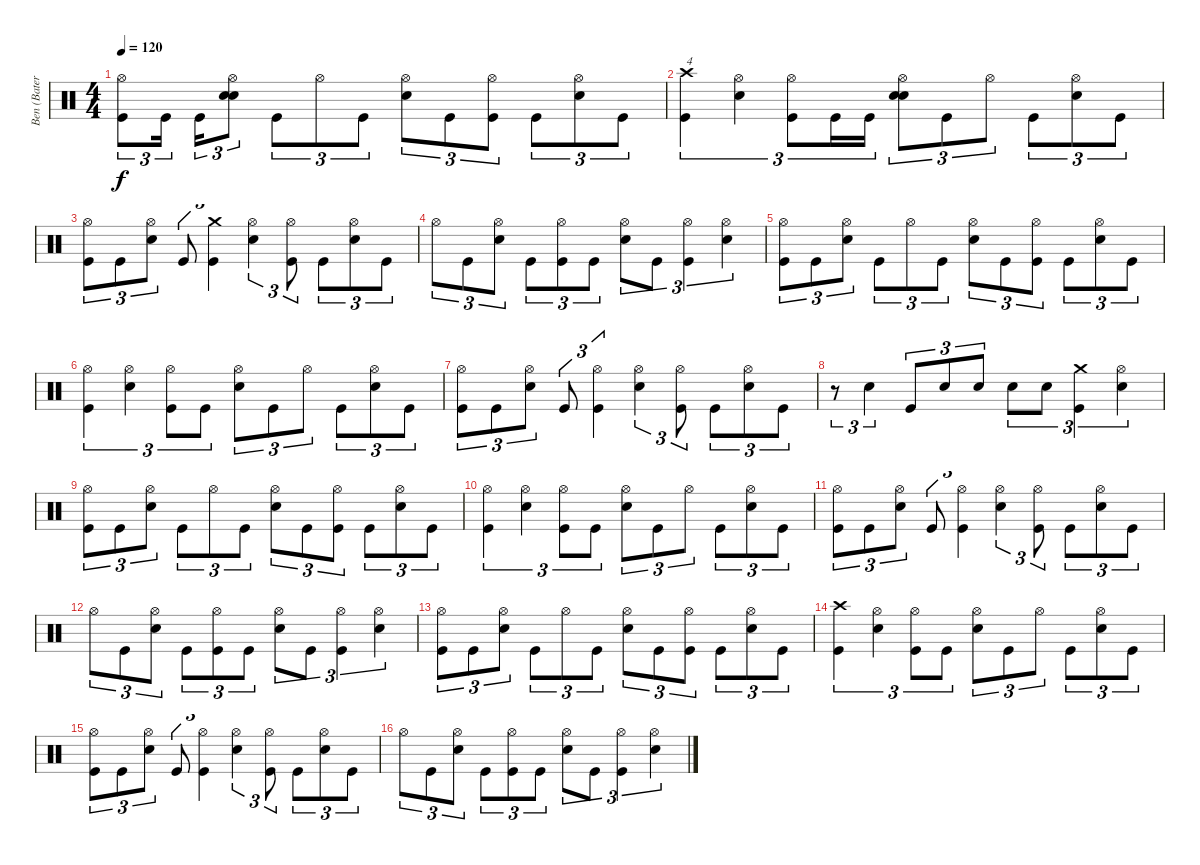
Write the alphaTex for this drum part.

\track ("Ben (Bateria)" "Ben (Bater") {instrument percussion}
\staff {score}
\articulation defaults
\ts (4 4)
\tempo 120
\clef neutral
\ks c
("Kick (hit)" "Hi-Hat (open)").8{tu (3 2) dy f} "Kick (hit)".16{tu (3 2)} "Kick (hit)".16{tu (3 2)} ("Snare (hit) 2" "Snare (hit) 2" "Hi-Hat (open)").8{tu (3 2) bu 60} "Kick (hit)".8{tu (3 2)} "Hi-Hat (open)".8{tu (3 2)} "Kick (hit)".8{tu (3 2)} ("Snare (hit) 2" "Hi-Hat (open)").8{tu (3 2)} "Kick (hit)".8{tu (3 2)} ("Kick (hit)" "Hi-Hat (open)").8{tu (3 2)} "Kick (hit)".8{tu (3 2)} ("Snare (hit) 2" "Hi-Hat (open)").8{tu (3 2)} "Kick (hit)".8{tu (3 2)} |
("Kick (hit)" "Crash high (hit)").4{tu (3 2) txt "4"} ("Snare (hit) 2" "Hi-Hat (open)").4{tu (3 2)} ("Kick (hit)" "Hi-Hat (open)").8{tu (3 2)} "Kick (hit)".16{tu (3 2)} "Kick (hit)".16{tu (3 2)} ("Snare (hit) 2" "Snare (hit) 2" "Hi-Hat (open)").8{tu (3 2) bu 60} "Kick (hit)".8{tu (3 2)} "Hi-Hat (open)".8{tu (3 2)} "Kick (hit)".8{tu (3 2)} ("Snare (hit) 2" "Hi-Hat (open)").8{tu (3 2)} "Kick (hit)".8{tu (3 2)} |
("Kick (hit)" "Hi-Hat (open)").8{tu (3 2)} "Kick (hit)".8{tu (3 2)} ("Snare (hit) 2" "Hi-Hat (open)").8{tu (3 2)} "Kick (hit)".8{tu (3 2)} ("Kick (hit)" "Crash medium (hit)").4{tu (3 2)} ("Snare (hit) 2" "Hi-Hat (open)").4{tu (3 2)} ("Kick (hit)" "Hi-Hat (open)").8{tu (3 2)} "Kick (hit)".8{tu (3 2)} ("Snare (hit) 2" "Hi-Hat (open)").8{tu (3 2)} "Kick (hit)".8{tu (3 2)} |
"Hi-Hat (open)".8{tu (3 2)} "Kick (hit)".8{tu (3 2)} ("Snare (hit) 2" "Hi-Hat (open)").8{tu (3 2)} "Kick (hit)".8{tu (3 2)} ("Kick (hit)" "Hi-Hat (open)").8{tu (3 2)} "Kick (hit)".8{tu (3 2)} ("Snare (hit) 2" "Hi-Hat (open)").8{tu (3 2)} "Kick (hit)".8{tu (3 2)} ("Kick (hit)" "Hi-Hat (open)").4{tu (3 2)} ("Snare (hit) 2" "Hi-Hat (open)").4{tu (3 2)} |
("Kick (hit)" "Hi-Hat (open)").8{tu (3 2)} "Kick (hit)".8{tu (3 2)} ("Snare (hit) 2" "Hi-Hat (open)").8{tu (3 2)} "Kick (hit)".8{tu (3 2)} "Hi-Hat (open)".8{tu (3 2)} "Kick (hit)".8{tu (3 2)} ("Snare (hit) 2" "Hi-Hat (open)").8{tu (3 2)} "Kick (hit)".8{tu (3 2)} ("Kick (hit)" "Hi-Hat (open)").8{tu (3 2)} "Kick (hit)".8{tu (3 2)} ("Snare (hit) 2" "Hi-Hat (open)").8{tu (3 2)} "Kick (hit)".8{tu (3 2)} |
("Kick (hit)" "Hi-Hat (open)").4{tu (3 2)} ("Snare (hit) 2" "Hi-Hat (open)").4{tu (3 2)} ("Kick (hit)" "Hi-Hat (open)").8{tu (3 2)} "Kick (hit)".8{tu (3 2)} ("Snare (hit) 2" "Hi-Hat (open)").8{tu (3 2)} "Kick (hit)".8{tu (3 2)} "Hi-Hat (open)".8{tu (3 2)} "Kick (hit)".8{tu (3 2)} ("Snare (hit) 2" "Hi-Hat (open)").8{tu (3 2)} "Kick (hit)".8{tu (3 2)} |
("Kick (hit)" "Hi-Hat (open)").8{tu (3 2)} "Kick (hit)".8{tu (3 2)} ("Snare (hit) 2" "Hi-Hat (open)").8{tu (3 2)} "Kick (hit)".8{tu (3 2)} ("Kick (hit)" "Hi-Hat (open)").4{tu (3 2)} ("Snare (hit) 2" "Hi-Hat (open)").4{tu (3 2)} ("Kick (hit)" "Hi-Hat (open)").8{tu (3 2)} "Kick (hit)".8{tu (3 2)} ("Snare (hit) 2" "Hi-Hat (open)").8{tu (3 2)} "Kick (hit)".8{tu (3 2)} |
r.8{tu (3 2)} "Snare (hit) 2".4{tu (3 2)} "Kick (hit)".8{tu (3 2)} "Snare (hit) 2".8{tu (3 2)} "Snare (hit) 2".8{tu (3 2)} "Snare (hit) 2".8{tu (3 2)} "Snare (hit) 2".8{tu (3 2)} ("Kick (hit)" "Crash medium (hit)").4{tu (3 2)} ("Snare (hit) 2" "Hi-Hat (open)").4{tu (3 2)} |
("Kick (hit)" "Hi-Hat (open)").8{tu (3 2)} "Kick (hit)".8{tu (3 2)} ("Snare (hit) 2" "Hi-Hat (open)").8{tu (3 2)} "Kick (hit)".8{tu (3 2)} "Hi-Hat (open)".8{tu (3 2)} "Kick (hit)".8{tu (3 2)} ("Snare (hit) 2" "Hi-Hat (open)").8{tu (3 2)} "Kick (hit)".8{tu (3 2)} ("Kick (hit)" "Hi-Hat (open)").8{tu (3 2)} "Kick (hit)".8{tu (3 2)} ("Snare (hit) 2" "Hi-Hat (open)").8{tu (3 2)} "Kick (hit)".8{tu (3 2)} |
("Kick (hit)" "Hi-Hat (open)").4{tu (3 2)} ("Snare (hit) 2" "Hi-Hat (open)").4{tu (3 2)} ("Kick (hit)" "Hi-Hat (open)").8{tu (3 2)} "Kick (hit)".8{tu (3 2)} ("Snare (hit) 2" "Hi-Hat (open)").8{tu (3 2)} "Kick (hit)".8{tu (3 2)} "Hi-Hat (open)".8{tu (3 2)} "Kick (hit)".8{tu (3 2)} ("Snare (hit) 2" "Hi-Hat (open)").8{tu (3 2)} "Kick (hit)".8{tu (3 2)} |
("Kick (hit)" "Hi-Hat (open)").8{tu (3 2)} "Kick (hit)".8{tu (3 2)} ("Snare (hit) 2" "Hi-Hat (open)").8{tu (3 2)} "Kick (hit)".8{tu (3 2)} ("Kick (hit)" "Hi-Hat (open)").4{tu (3 2)} ("Snare (hit) 2" "Hi-Hat (open)").4{tu (3 2)} ("Kick (hit)" "Hi-Hat (open)").8{tu (3 2)} "Kick (hit)".8{tu (3 2)} ("Snare (hit) 2" "Hi-Hat (open)").8{tu (3 2)} "Kick (hit)".8{tu (3 2)} |
"Hi-Hat (open)".8{tu (3 2)} "Kick (hit)".8{tu (3 2)} ("Snare (hit) 2" "Hi-Hat (open)").8{tu (3 2)} "Kick (hit)".8{tu (3 2)} ("Kick (hit)" "Hi-Hat (open)").8{tu (3 2)} "Kick (hit)".8{tu (3 2)} ("Snare (hit) 2" "Hi-Hat (open)").8{tu (3 2)} "Kick (hit)".8{tu (3 2)} ("Kick (hit)" "Hi-Hat (open)").4{tu (3 2)} ("Snare (hit) 2" "Hi-Hat (open)").4{tu (3 2)} |
("Kick (hit)" "Hi-Hat (open)").8{tu (3 2)} "Kick (hit)".8{tu (3 2)} ("Snare (hit) 2" "Hi-Hat (open)").8{tu (3 2)} "Kick (hit)".8{tu (3 2)} "Hi-Hat (open)".8{tu (3 2)} "Kick (hit)".8{tu (3 2)} ("Snare (hit) 2" "Hi-Hat (open)").8{tu (3 2)} "Kick (hit)".8{tu (3 2)} ("Kick (hit)" "Hi-Hat (open)").8{tu (3 2)} "Kick (hit)".8{tu (3 2)} ("Snare (hit) 2" "Hi-Hat (open)").8{tu (3 2)} "Kick (hit)".8{tu (3 2)} |
("Kick (hit)" "Crash high (hit)").4{tu (3 2)} ("Snare (hit) 2" "Hi-Hat (open)").4{tu (3 2)} ("Kick (hit)" "Hi-Hat (open)").8{tu (3 2)} "Kick (hit)".8{tu (3 2)} ("Snare (hit) 2" "Hi-Hat (open)").8{tu (3 2)} "Kick (hit)".8{tu (3 2)} "Hi-Hat (open)".8{tu (3 2)} "Kick (hit)".8{tu (3 2)} ("Snare (hit) 2" "Hi-Hat (open)").8{tu (3 2)} "Kick (hit)".8{tu (3 2)} |
("Kick (hit)" "Hi-Hat (open)").8{tu (3 2)} "Kick (hit)".8{tu (3 2)} ("Snare (hit) 2" "Hi-Hat (open)").8{tu (3 2)} "Kick (hit)".8{tu (3 2)} ("Kick (hit)" "Hi-Hat (open)").4{tu (3 2)} ("Snare (hit) 2" "Hi-Hat (open)").4{tu (3 2)} ("Kick (hit)" "Hi-Hat (open)").8{tu (3 2)} "Kick (hit)".8{tu (3 2)} ("Snare (hit) 2" "Hi-Hat (open)").8{tu (3 2)} "Kick (hit)".8{tu (3 2)} |
"Hi-Hat (open)".8{tu (3 2)} "Kick (hit)".8{tu (3 2)} ("Snare (hit) 2" "Hi-Hat (open)").8{tu (3 2)} "Kick (hit)".8{tu (3 2)} ("Kick (hit)" "Hi-Hat (open)").8{tu (3 2)} "Kick (hit)".8{tu (3 2)} ("Snare (hit) 2" "Hi-Hat (open)").8{tu (3 2)} "Kick (hit)".8{tu (3 2)} ("Kick (hit)" "Hi-Hat (open)").4{tu (3 2)} ("Snare (hit) 2" "Hi-Hat (open)").4{tu (3 2)}
